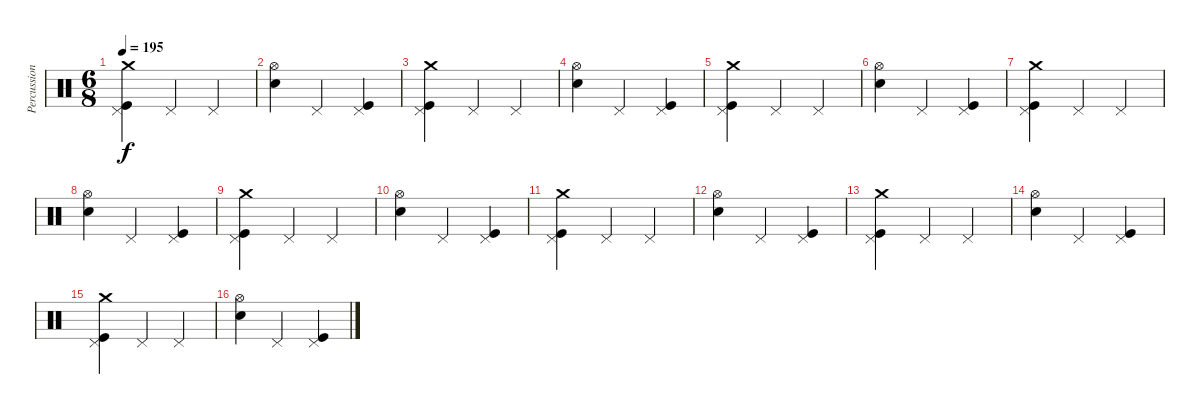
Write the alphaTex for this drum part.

\track ("Percussion" "Percussion") {instrument percussion}
\staff {score}
\articulation defaults
\ts (6 8)
\tempo 195
\clef neutral
\ks c
("Crash medium (hit)" "Pedal Hi-Hat (hit)" "Kick (hit)").4{dy f} "Pedal Hi-Hat (hit)".4 "Pedal Hi-Hat (hit)".4 |
("Hi-Hat (open)" "Electric Snare (hit)").4 "Pedal Hi-Hat (hit)".4 ("Pedal Hi-Hat (hit)" "Kick (hit)").4 |
("Crash medium (hit)" "Pedal Hi-Hat (hit)" "Kick (hit)").4 "Pedal Hi-Hat (hit)".4 "Pedal Hi-Hat (hit)".4 |
("Hi-Hat (open)" "Electric Snare (hit)").4 "Pedal Hi-Hat (hit)".4 ("Pedal Hi-Hat (hit)" "Kick (hit)").4 |
("Crash medium (hit)" "Pedal Hi-Hat (hit)" "Kick (hit)").4 "Pedal Hi-Hat (hit)".4 "Pedal Hi-Hat (hit)".4 |
("Hi-Hat (open)" "Electric Snare (hit)").4 "Pedal Hi-Hat (hit)".4 ("Pedal Hi-Hat (hit)" "Kick (hit)").4 |
("Crash medium (hit)" "Pedal Hi-Hat (hit)" "Kick (hit)").4 "Pedal Hi-Hat (hit)".4 "Pedal Hi-Hat (hit)".4 |
("Hi-Hat (open)" "Electric Snare (hit)").4 "Pedal Hi-Hat (hit)".4 ("Pedal Hi-Hat (hit)" "Kick (hit)").4 |
("Crash medium (hit)" "Pedal Hi-Hat (hit)" "Kick (hit)").4 "Pedal Hi-Hat (hit)".4 "Pedal Hi-Hat (hit)".4 |
("Hi-Hat (open)" "Electric Snare (hit)").4 "Pedal Hi-Hat (hit)".4 ("Pedal Hi-Hat (hit)" "Kick (hit)").4 |
("Crash medium (hit)" "Pedal Hi-Hat (hit)" "Kick (hit)").4 "Pedal Hi-Hat (hit)".4 "Pedal Hi-Hat (hit)".4 |
("Hi-Hat (open)" "Electric Snare (hit)").4 "Pedal Hi-Hat (hit)".4 ("Pedal Hi-Hat (hit)" "Kick (hit)").4 |
("Crash medium (hit)" "Pedal Hi-Hat (hit)" "Kick (hit)").4 "Pedal Hi-Hat (hit)".4 "Pedal Hi-Hat (hit)".4 |
("Hi-Hat (open)" "Electric Snare (hit)").4 "Pedal Hi-Hat (hit)".4 ("Pedal Hi-Hat (hit)" "Kick (hit)").4 |
("Crash medium (hit)" "Pedal Hi-Hat (hit)" "Kick (hit)").4 "Pedal Hi-Hat (hit)".4 "Pedal Hi-Hat (hit)".4 |
("Hi-Hat (open)" "Electric Snare (hit)").4 "Pedal Hi-Hat (hit)".4 ("Pedal Hi-Hat (hit)" "Kick (hit)").4
